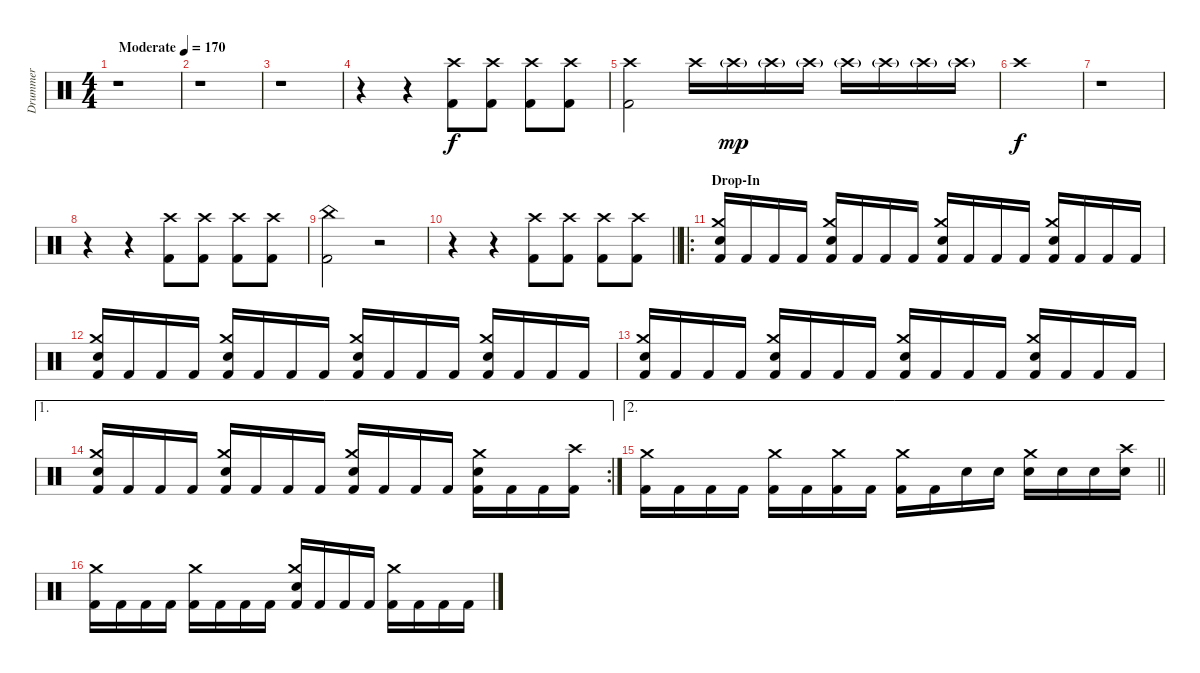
\track ("Drummer" "Drummer") {instrument percussion}
\staff {score}
\articulation defaults
\ts (4 4)
\tempo (170 "Moderate")
\clef neutral
\ks c
r.1{dy f} |
r.1 |
r.1 |
r.4 r.4 ("Crash high (hit)" "Kick (hit) 2").8 ("Crash high (hit)" "Kick (hit) 2").8 ("Crash high (hit)" "Kick (hit) 2").8 ("Crash high (hit)" "Kick (hit) 2").8 |
("Crash high (hit)" "Kick (hit) 2").2 "Crash high (hit)".16 "Crash high (hit)"{g}.16{dy mp} "Crash high (hit)"{g}.16 "Crash high (hit)"{g}.16 "Crash high (hit)"{g}.16 "Crash high (hit)"{g}.16 "Crash high (hit)"{g}.16 "Crash high (hit)"{g}.16 |
"Crash high (hit)".1{dy f} |
r.1 |
r.4 r.4 ("Crash high (hit)" "Kick (hit) 2").8 ("Crash high (hit)" "Kick (hit) 2").8 ("Crash high (hit)" "Kick (hit) 2").8 ("Crash high (hit)" "Kick (hit) 2").8 |
("China (hit)" "Kick (hit) 2").2 r.2 |
\barLineRight lightlight
r.4 r.4 ("Crash high (hit)" "Kick (hit) 2").8 ("Crash high (hit)" "Kick (hit) 2").8 ("Crash high (hit)" "Kick (hit) 2").8 ("Crash high (hit)" "Kick (hit) 2").8 |
\ro
\section ("" "Drop-In")
("Crash medium (hit)" "Electric Snare (hit)" "Kick (hit) 2").16 "Kick (hit) 2".16 "Kick (hit) 2".16 "Kick (hit) 2".16 ("Crash medium (hit)" "Electric Snare (hit)" "Kick (hit) 2").16 "Kick (hit) 2".16 "Kick (hit) 2".16 "Kick (hit) 2".16 ("Crash medium (hit)" "Electric Snare (hit)" "Kick (hit) 2").16 "Kick (hit) 2".16 "Kick (hit) 2".16 "Kick (hit) 2".16 ("Crash medium (hit)" "Electric Snare (hit)" "Kick (hit) 2").16 "Kick (hit) 2".16 "Kick (hit) 2".16 "Kick (hit) 2".16 |
("Crash medium (hit)" "Electric Snare (hit)" "Kick (hit) 2").16 "Kick (hit) 2".16 "Kick (hit) 2".16 "Kick (hit) 2".16 ("Crash medium (hit)" "Electric Snare (hit)" "Kick (hit) 2").16 "Kick (hit) 2".16 "Kick (hit) 2".16 "Kick (hit) 2".16 ("Crash medium (hit)" "Electric Snare (hit)" "Kick (hit) 2").16 "Kick (hit) 2".16 "Kick (hit) 2".16 "Kick (hit) 2".16 ("Crash medium (hit)" "Electric Snare (hit)" "Kick (hit) 2").16 "Kick (hit) 2".16 "Kick (hit) 2".16 "Kick (hit) 2".16 |
("Crash medium (hit)" "Electric Snare (hit)" "Kick (hit) 2").16 "Kick (hit) 2".16 "Kick (hit) 2".16 "Kick (hit) 2".16 ("Crash medium (hit)" "Electric Snare (hit)" "Kick (hit) 2").16 "Kick (hit) 2".16 "Kick (hit) 2".16 "Kick (hit) 2".16 ("Crash medium (hit)" "Electric Snare (hit)" "Kick (hit) 2").16 "Kick (hit) 2".16 "Kick (hit) 2".16 "Kick (hit) 2".16 ("Crash medium (hit)" "Electric Snare (hit)" "Kick (hit) 2").16 "Kick (hit) 2".16 "Kick (hit) 2".16 "Kick (hit) 2".16 |
\ae 1
\rc 2
("Crash medium (hit)" "Electric Snare (hit)" "Kick (hit) 2").16 "Kick (hit) 2".16 "Kick (hit) 2".16 "Kick (hit) 2".16 ("Crash medium (hit)" "Electric Snare (hit)" "Kick (hit) 2").16 "Kick (hit) 2".16 "Kick (hit) 2".16 "Kick (hit) 2".16 ("Crash medium (hit)" "Electric Snare (hit)" "Kick (hit) 2").16 "Kick (hit) 2".16 "Kick (hit) 2".16 "Kick (hit) 2".16 ("Crash medium (hit)" "Electric Snare (hit)" "Kick (hit) 2").16 "Kick (hit) 2".16 "Kick (hit) 2".16 ("Crash high (hit)" "Kick (hit) 2").16 |
\ae 2
\barLineRight lightlight
("Crash medium (hit)" "Kick (hit) 2").16 "Kick (hit) 2".16 "Kick (hit) 2".16 "Kick (hit) 2".16 ("Crash medium (hit)" "Kick (hit) 2").16 "Kick (hit) 2".16 ("Crash medium (hit)" "Kick (hit) 2").16 "Kick (hit) 2".16 ("Crash medium (hit)" "Kick (hit) 2").16 "Kick (hit) 2".16 "Electric Snare (hit)".16 "Electric Snare (hit)".16 ("Crash medium (hit)" "Electric Snare (hit)").16 "Electric Snare (hit)".16 "Electric Snare (hit)".16 ("Crash high (hit)" "Electric Snare (hit)").16 |
("Crash medium (hit)" "Kick (hit) 2").16 "Kick (hit) 2".16 "Kick (hit) 2".16 "Kick (hit) 2".16 ("Crash medium (hit)" "Kick (hit) 2").16 "Kick (hit) 2".16 "Kick (hit) 2".16 "Kick (hit) 2".16 ("Crash medium (hit)" "Electric Snare (hit)" "Kick (hit) 2").16 "Kick (hit) 2".16 "Kick (hit) 2".16 "Kick (hit) 2".16 ("Crash medium (hit)" "Kick (hit) 2").16 "Kick (hit) 2".16 "Kick (hit) 2".16 "Kick (hit) 2".16
